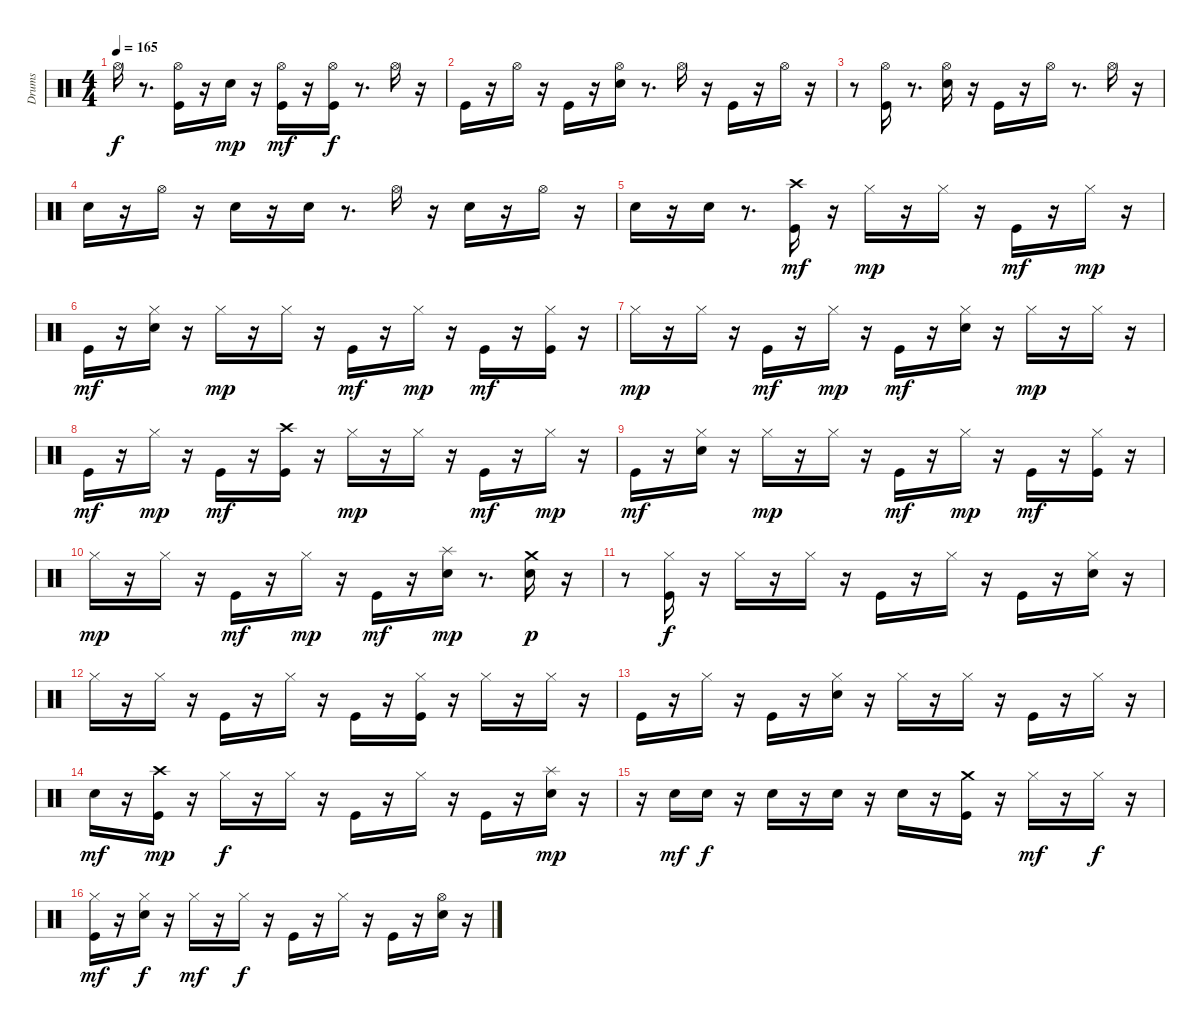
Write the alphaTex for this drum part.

\track ("Drums" "Drums") {instrument percussion}
\staff {score}
\articulation defaults
\ts (4 4)
\tempo 165
\clef neutral
\ks c "Hi-Hat (open)".16{dy f}
r.8{d} ("Kick (hit)" "Hi-Hat (open)").16 r.16 "Electric Snare (hit)".16{dy mp} r.16 ("Kick (hit)" "Hi-Hat (open)").16{dy mf} r.16 ("Kick (hit)" "Hi-Hat (open)").16{dy f} r.8{d} "Hi-Hat (open)".16 r.16 |
"Kick (hit)".16 r.16 "Hi-Hat (open)".16 r.16 "Kick (hit)".16 r.16 ("Hi-Hat (open)" "Electric Snare (hit)").16 r.8{d} "Hi-Hat (open)".16 r.16 "Kick (hit)".16 r.16 "Hi-Hat (open)".16 r.16 |
r.8 ("Kick (hit)" "Hi-Hat (open)").16 r.8{d} ("Electric Snare (hit)" "Hi-Hat (open)").16 r.16 "Kick (hit)".16 r.16 "Hi-Hat (open)".16 r.8{d} "Hi-Hat (open)".16 r.16 |
"Electric Snare (hit)".16 r.16 "Hi-Hat (open)".16 r.16 "Electric Snare (hit)".16 r.16 "Electric Snare (hit)".16 r.8{d} "Hi-Hat (open)".16 r.16 "Electric Snare (hit)".16 r.16 "Hi-Hat (open)".16 r.16 |
"Electric Snare (hit)".16 r.16 "Electric Snare (hit)".16 r.8{d} ("Kick (hit)" "Crash high (hit)").16{dy mf} r.16 "Hi-Hat (closed)".16{dy mp} r.16 "Hi-Hat (closed)".16 r.16 "Kick (hit)".16{dy mf} r.16 "Hi-Hat (closed)".16{dy mp} r.16 |
"Kick (hit)".16{dy mf} r.16 ("Electric Snare (hit)" "Hi-Hat (closed)").16 r.16 "Hi-Hat (closed)".16{dy mp} r.16 "Hi-Hat (closed)".16 r.16 "Kick (hit)".16{dy mf} r.16 "Hi-Hat (closed)".16{dy mp} r.16 "Kick (hit)".16{dy mf} r.16 ("Kick (hit)" "Hi-Hat (closed)").16 r.16 |
"Hi-Hat (closed)".16{dy mp} r.16 "Hi-Hat (closed)".16 r.16 "Kick (hit)".16{dy mf} r.16 "Hi-Hat (closed)".16{dy mp} r.16 "Kick (hit)".16{dy mf} r.16 ("Hi-Hat (closed)" "Electric Snare (hit)").16 r.16 "Hi-Hat (closed)".16{dy mp} r.16 "Hi-Hat (closed)".16 r.16 |
"Kick (hit)".16{dy mf} r.16 "Hi-Hat (closed)".16{dy mp} r.16 "Kick (hit)".16{dy mf} r.16 ("Kick (hit)" "Crash high (hit)").16 r.16 "Hi-Hat (closed)".16{dy mp} r.16 "Hi-Hat (closed)".16 r.16 "Kick (hit)".16{dy mf} r.16 "Hi-Hat (closed)".16{dy mp} r.16 |
"Kick (hit)".16{dy mf} r.16 ("Hi-Hat (closed)" "Electric Snare (hit)").16 r.16 "Hi-Hat (closed)".16{dy mp} r.16 "Hi-Hat (closed)".16 r.16 "Kick (hit)".16{dy mf} r.16 "Hi-Hat (closed)".16{dy mp} r.16 "Kick (hit)".16{dy mf} r.16 ("Hi-Hat (closed)" "Kick (hit)").16 r.16 |
"Hi-Hat (closed)".16{dy mp} r.16 "Hi-Hat (closed)".16 r.16 "Kick (hit)".16{dy mf} r.16 "Hi-Hat (closed)".16{dy mp} r.16 "Kick (hit)".16{dy mf} r.16 ("Splash (hit)" "Electric Snare (hit)").16{dy mp} r.8{d} ("Crash medium (hit)" "Electric Snare (hit)").16{dy p} r.16 |
r.8 ("Kick (hit)" "Hi-Hat (closed)").16{dy f} r.16 "Hi-Hat (closed)".16 r.16 "Hi-Hat (closed)".16 r.16 "Kick (hit)".16 r.16 "Hi-Hat (closed)".16 r.16 "Kick (hit)".16 r.16 ("Hi-Hat (closed)" "Electric Snare (hit)").16 r.16 |
"Hi-Hat (closed)".16 r.16 "Hi-Hat (closed)".16 r.16 "Kick (hit)".16 r.16 "Hi-Hat (closed)".16 r.16 "Kick (hit)".16 r.16 ("Hi-Hat (closed)" "Kick (hit)").16 r.16 "Hi-Hat (closed)".16 r.16 "Hi-Hat (closed)".16 r.16 |
"Kick (hit)".16 r.16 "Hi-Hat (closed)".16 r.16 "Kick (hit)".16 r.16 ("Hi-Hat (closed)" "Electric Snare (hit)").16 r.16 "Hi-Hat (closed)".16 r.16 "Hi-Hat (closed)".16 r.16 "Kick (hit)".16 r.16 "Hi-Hat (closed)".16 r.16 |
"Electric Snare (hit)".16{dy mf} r.16 ("Kick (hit)" "Crash high (hit)").16{dy mp} r.16 "Hi-Hat (closed)".16{dy f} r.16 "Hi-Hat (closed)".16 r.16 "Kick (hit)".16 r.16 "Hi-Hat (closed)".16 r.16 "Kick (hit)".16 r.16 ("Splash (hit)" "Electric Snare (hit)").16{dy mp} r.16 |
r.16 "Electric Snare (hit)".16{dy mf} "Electric Snare (hit)".16{dy f} r.16 "Electric Snare (hit)".16 r.16 "Electric Snare (hit)".16 r.16 "Electric Snare (hit)".16 r.16 ("Kick (hit)" "Crash medium (hit)").16 r.16 "Hi-Hat (closed)".16{dy mf} r.16 "Hi-Hat (closed)".16{dy f} r.16 |
("Kick (hit)" "Hi-Hat (closed)").16{dy mf} r.16 ("Hi-Hat (closed)" "Electric Snare (hit)").16{dy f} r.16 "Hi-Hat (closed)".16{dy mf} r.16 "Hi-Hat (closed)".16{dy f} r.16 "Kick (hit)".16 r.16 "Hi-Hat (closed)".16 r.16 "Kick (hit)".16 r.16 ("Electric Snare (hit)" "Hi-Hat (open)").16 r.16
